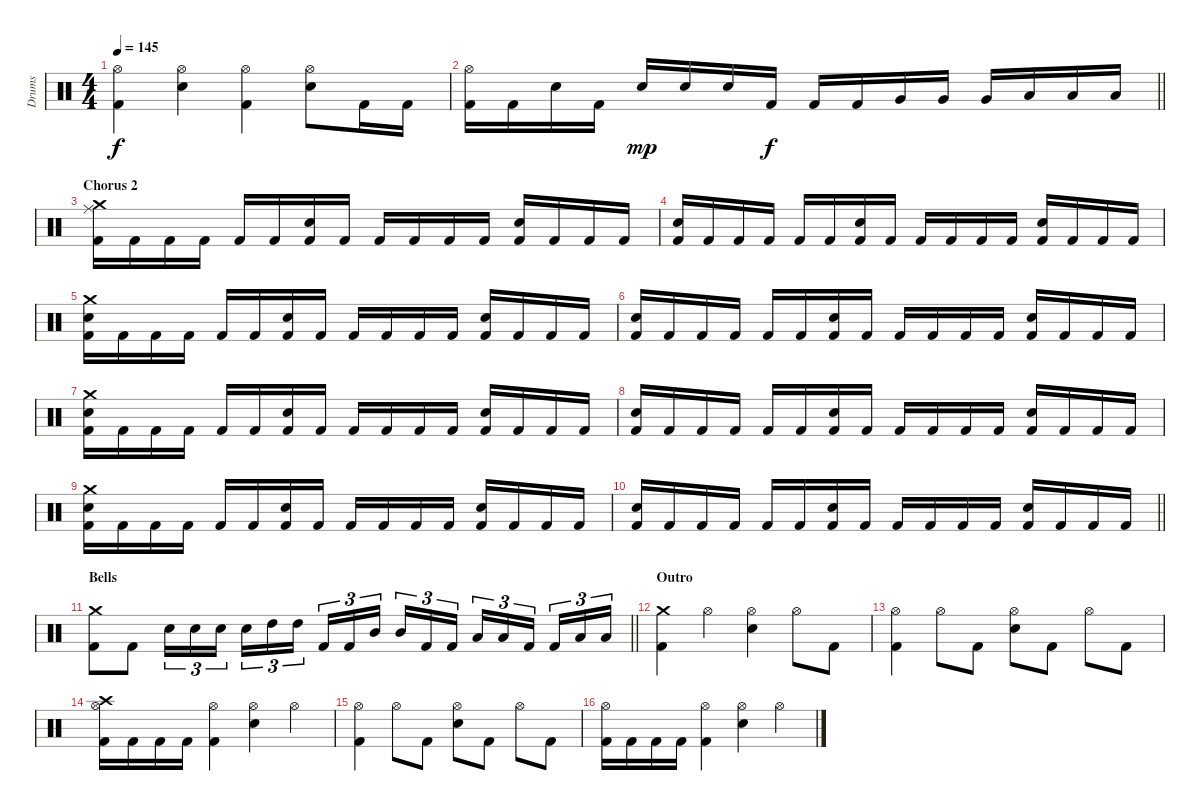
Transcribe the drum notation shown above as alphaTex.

\track ("Drums" "Drums") {instrument percussion}
\staff {score}
\articulation defaults
\ts (4 4)
\tempo 145
\clef neutral
\ks c
("Hi-Hat (open)" "Kick (hit) 2").4{dy f} ("Hi-Hat (open)" "Electric Snare (hit)").4 ("Hi-Hat (open)" "Kick (hit) 2").4 ("Hi-Hat (open)" "Electric Snare (hit)").8 "Kick (hit) 2".16 "Kick (hit) 2".16 |
\barLineRight lightlight
("Hi-Hat (open)" "Kick (hit) 2").16 "Kick (hit) 2".16 "Electric Snare (hit)".16 "Kick (hit) 2".16 "Electric Snare (hit)".16{dy mp} "Electric Snare (hit)".16 "Electric Snare (hit)".16 "Kick (hit) 2".16{dy f} "Kick (hit) 2".16 "Kick (hit) 2".16 "Very Low Tom (hit)".16 "Very Low Tom (hit)".16 "Very Low Tom (hit)".16 "Low Floor Tom (hit)".16 "Low Floor Tom (hit)".16 "Low Floor Tom (hit)".16 |
\section ("" "Chorus 2")
("Crash medium (hit)" "Ride (middle)" "Kick (hit) 2").16 "Kick (hit) 2".16 "Kick (hit) 2".16 "Kick (hit) 2".16 "Kick (hit) 2".16 "Kick (hit) 2".16 ("Electric Snare (hit)" "Kick (hit) 2").16 "Kick (hit) 2".16 "Kick (hit) 2".16 "Kick (hit) 2".16 "Kick (hit) 2".16 "Kick (hit) 2".16 ("Electric Snare (hit)" "Kick (hit) 2").16 "Kick (hit) 2".16 "Kick (hit) 2".16 "Kick (hit) 2".16 |
("Electric Snare (hit)" "Kick (hit) 2").16 "Kick (hit) 2".16 "Kick (hit) 2".16 "Kick (hit) 2".16 "Kick (hit) 2".16 "Kick (hit) 2".16 ("Electric Snare (hit)" "Kick (hit) 2").16 "Kick (hit) 2".16 "Kick (hit) 2".16 "Kick (hit) 2".16 "Kick (hit) 2".16 "Kick (hit) 2".16 ("Electric Snare (hit)" "Kick (hit) 2").16 "Kick (hit) 2".16 "Kick (hit) 2".16 "Kick (hit) 2".16 |
("Crash medium (hit)" "Electric Snare (hit)" "Kick (hit) 2").16 "Kick (hit) 2".16 "Kick (hit) 2".16 "Kick (hit) 2".16 "Kick (hit) 2".16 "Kick (hit) 2".16 ("Electric Snare (hit)" "Kick (hit) 2").16 "Kick (hit) 2".16 "Kick (hit) 2".16 "Kick (hit) 2".16 "Kick (hit) 2".16 "Kick (hit) 2".16 ("Electric Snare (hit)" "Kick (hit) 2").16 "Kick (hit) 2".16 "Kick (hit) 2".16 "Kick (hit) 2".16 |
("Electric Snare (hit)" "Kick (hit) 2").16 "Kick (hit) 2".16 "Kick (hit) 2".16 "Kick (hit) 2".16 "Kick (hit) 2".16 "Kick (hit) 2".16 ("Electric Snare (hit)" "Kick (hit) 2").16 "Kick (hit) 2".16 "Kick (hit) 2".16 "Kick (hit) 2".16 "Kick (hit) 2".16 "Kick (hit) 2".16 ("Electric Snare (hit)" "Kick (hit) 2").16 "Kick (hit) 2".16 "Kick (hit) 2".16 "Kick (hit) 2".16 |
("Crash medium (hit)" "Electric Snare (hit)" "Kick (hit) 2").16 "Kick (hit) 2".16 "Kick (hit) 2".16 "Kick (hit) 2".16 "Kick (hit) 2".16 "Kick (hit) 2".16 ("Electric Snare (hit)" "Kick (hit) 2").16 "Kick (hit) 2".16 "Kick (hit) 2".16 "Kick (hit) 2".16 "Kick (hit) 2".16 "Kick (hit) 2".16 ("Electric Snare (hit)" "Kick (hit) 2").16 "Kick (hit) 2".16 "Kick (hit) 2".16 "Kick (hit) 2".16 |
("Electric Snare (hit)" "Kick (hit) 2").16 "Kick (hit) 2".16 "Kick (hit) 2".16 "Kick (hit) 2".16 "Kick (hit) 2".16 "Kick (hit) 2".16 ("Electric Snare (hit)" "Kick (hit) 2").16 "Kick (hit) 2".16 "Kick (hit) 2".16 "Kick (hit) 2".16 "Kick (hit) 2".16 "Kick (hit) 2".16 ("Electric Snare (hit)" "Kick (hit) 2").16 "Kick (hit) 2".16 "Kick (hit) 2".16 "Kick (hit) 2".16 |
("Crash medium (hit)" "Electric Snare (hit)" "Kick (hit) 2").16 "Kick (hit) 2".16 "Kick (hit) 2".16 "Kick (hit) 2".16 "Kick (hit) 2".16 "Kick (hit) 2".16 ("Electric Snare (hit)" "Kick (hit) 2").16 "Kick (hit) 2".16 "Kick (hit) 2".16 "Kick (hit) 2".16 "Kick (hit) 2".16 "Kick (hit) 2".16 ("Electric Snare (hit)" "Kick (hit) 2").16 "Kick (hit) 2".16 "Kick (hit) 2".16 "Kick (hit) 2".16 |
\barLineRight lightlight
("Electric Snare (hit)" "Kick (hit) 2").16 "Kick (hit) 2".16 "Kick (hit) 2".16 "Kick (hit) 2".16 "Kick (hit) 2".16 "Kick (hit) 2".16 ("Electric Snare (hit)" "Kick (hit) 2").16 "Kick (hit) 2".16 "Kick (hit) 2".16 "Kick (hit) 2".16 "Kick (hit) 2".16 "Kick (hit) 2".16 ("Electric Snare (hit)" "Kick (hit) 2").16 "Kick (hit) 2".16 "Kick (hit) 2".16 "Kick (hit) 2".16 |
\section ("" "Bells")
\barLineRight lightlight
("Crash medium (hit)" "Kick (hit) 2").8 "Kick (hit) 2".8 "Electric Snare (hit)".16{tu (3 2)} "Electric Snare (hit)".16{tu (3 2)} "Electric Snare (hit)".16{tu (3 2) beam splitsecondary} "Electric Snare (hit)".16{tu (3 2)} "High Tom (hit)".16{tu (3 2)} "High Tom (hit)".16{tu (3 2)} "Kick (hit) 2".16{tu (3 2)} "Kick (hit) 2".16{tu (3 2)} "Mid Tom (hit)".16{tu (3 2) beam splitsecondary} "Mid Tom (hit)".16{tu (3 2)} "Kick (hit) 2".16{tu (3 2)} "Kick (hit) 2".16{tu (3 2)} "Low Tom (hit)".16{tu (3 2)} "Low Tom (hit)".16{tu (3 2)} "Kick (hit) 2".16{tu (3 2) beam splitsecondary} "Kick (hit) 2".16{tu (3 2)} "Low Floor Tom (hit)".16{tu (3 2)} "Low Floor Tom (hit)".16{tu (3 2)} |
\section ("" "Outro")
("Crash medium (hit)" "Kick (hit) 2").4 "Hi-Hat (open)".4 ("Hi-Hat (open)" "Electric Snare (hit)").4 "Hi-Hat (open)".8 "Kick (hit) 2".8 |
("Hi-Hat (open)" "Kick (hit) 2").4 "Hi-Hat (open)".8 "Kick (hit) 2".8 ("Hi-Hat (open)" "Electric Snare (hit)").8 "Kick (hit) 2".8 "Hi-Hat (open)".8 "Kick (hit) 2".8 |
("Crash high (hit)" "Hi-Hat (open)" "Kick (hit) 2").16 "Kick (hit) 2".16 "Kick (hit) 2".16 "Kick (hit) 2".16 ("Hi-Hat (open)" "Kick (hit) 2").4 ("Hi-Hat (open)" "Electric Snare (hit)").4 "Hi-Hat (open)".4 |
("Hi-Hat (open)" "Kick (hit) 2").4 "Hi-Hat (open)".8 "Kick (hit) 2".8 ("Hi-Hat (open)" "Electric Snare (hit)").8 "Kick (hit) 2".8 "Hi-Hat (open)".8 "Kick (hit) 2".8 |
("Hi-Hat (open)" "Kick (hit) 2").16 "Kick (hit) 2".16 "Kick (hit) 2".16 "Kick (hit) 2".16 ("Hi-Hat (open)" "Kick (hit) 2").4 ("Hi-Hat (open)" "Electric Snare (hit)").4 "Hi-Hat (open)".4
